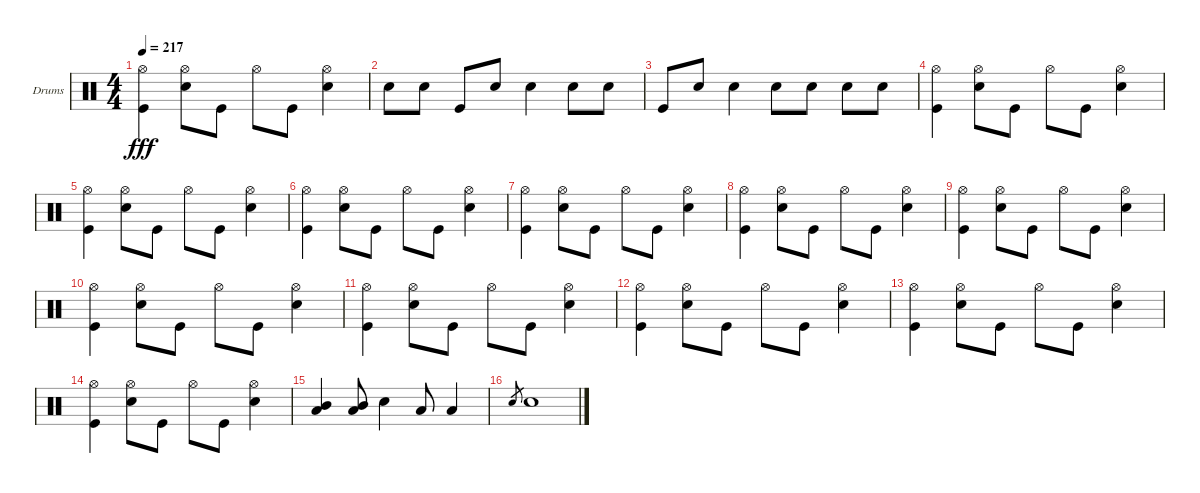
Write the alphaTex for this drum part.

\bracketExtendMode groupsimilarinstruments
\firstSystemTrackNameOrientation horizontal
\otherSystemsTrackNameOrientation horizontal
\track ("Drumkit" "Drums") {instrument percussion}
\staff {score}
\articulation defaults
\ts (4 4)
\tempo 217
\clef neutral
\ks c
("Kick (hit)" "Hi-Hat (open)").4{dy fff} ("Hi-Hat (open)" "Snare (hit) 2").8 "Kick (hit)".8 "Hi-Hat (open)".8 "Kick (hit)".8 ("Snare (hit) 2" "Hi-Hat (open)").4 |
"Snare (hit) 2".8 "Snare (hit) 2".8 "Kick (hit)".8 "Snare (hit) 2".8 "Snare (hit) 2".4 "Snare (hit) 2".8 "Snare (hit) 2".8 |
"Kick (hit)".8 "Snare (hit) 2".8 "Snare (hit) 2".4 "Snare (hit) 2".8 "Snare (hit) 2".8 "Snare (hit) 2".8 "Snare (hit) 2".8 |
("Kick (hit)" "Hi-Hat (open)").4 ("Hi-Hat (open)" "Snare (hit) 2").8 "Kick (hit)".8 "Hi-Hat (open)".8 "Kick (hit)".8 ("Snare (hit) 2" "Hi-Hat (open)").4 |
("Kick (hit)" "Hi-Hat (open)").4 ("Hi-Hat (open)" "Snare (hit) 2").8 "Kick (hit)".8 "Hi-Hat (open)".8 "Kick (hit)".8 ("Snare (hit) 2" "Hi-Hat (open)").4 |
("Kick (hit)" "Hi-Hat (open)").4 ("Hi-Hat (open)" "Snare (hit) 2").8 "Kick (hit)".8 "Hi-Hat (open)".8 "Kick (hit)".8 ("Snare (hit) 2" "Hi-Hat (open)").4 |
("Kick (hit)" "Hi-Hat (open)").4 ("Hi-Hat (open)" "Snare (hit) 2").8 "Kick (hit)".8 "Hi-Hat (open)".8 "Kick (hit)".8 ("Snare (hit) 2" "Hi-Hat (open)").4 |
("Kick (hit)" "Hi-Hat (open)").4 ("Hi-Hat (open)" "Snare (hit) 2").8 "Kick (hit)".8 "Hi-Hat (open)".8 "Kick (hit)".8 ("Snare (hit) 2" "Hi-Hat (open)").4 |
("Kick (hit)" "Hi-Hat (open)").4 ("Hi-Hat (open)" "Snare (hit) 2").8 "Kick (hit)".8 "Hi-Hat (open)".8 "Kick (hit)".8 ("Snare (hit) 2" "Hi-Hat (open)").4 |
("Kick (hit)" "Hi-Hat (open)").4 ("Hi-Hat (open)" "Snare (hit) 2").8 "Kick (hit)".8 "Hi-Hat (open)".8 "Kick (hit)".8 ("Snare (hit) 2" "Hi-Hat (open)").4 |
("Kick (hit)" "Hi-Hat (open)").4 ("Hi-Hat (open)" "Snare (hit) 2").8 "Kick (hit)".8 "Hi-Hat (open)".8 "Kick (hit)".8 ("Snare (hit) 2" "Hi-Hat (open)").4 |
("Kick (hit)" "Hi-Hat (open)").4 ("Hi-Hat (open)" "Snare (hit) 2").8 "Kick (hit)".8 "Hi-Hat (open)".8 "Kick (hit)".8 ("Snare (hit) 2" "Hi-Hat (open)").4 |
("Kick (hit)" "Hi-Hat (open)").4 ("Hi-Hat (open)" "Snare (hit) 2").8 "Kick (hit)".8 "Hi-Hat (open)".8 "Kick (hit)".8 ("Snare (hit) 2" "Hi-Hat (open)").4 |
("Kick (hit)" "Hi-Hat (open)").4 ("Hi-Hat (open)" "Snare (hit) 2").8 "Kick (hit)".8 "Hi-Hat (open)".8 "Kick (hit)".8 ("Snare (hit) 2" "Hi-Hat (open)").4 |
("Mid Tom (hit)" "Low Tom (hit)").4 ("Low Tom (hit)" "Mid Tom (hit)").8 "Snare (hit) 2".4 "Low Tom (hit)".8 "Low Tom (hit)".4 |
"Snare (hit) 2".8{gr} "Snare (hit) 2".1
